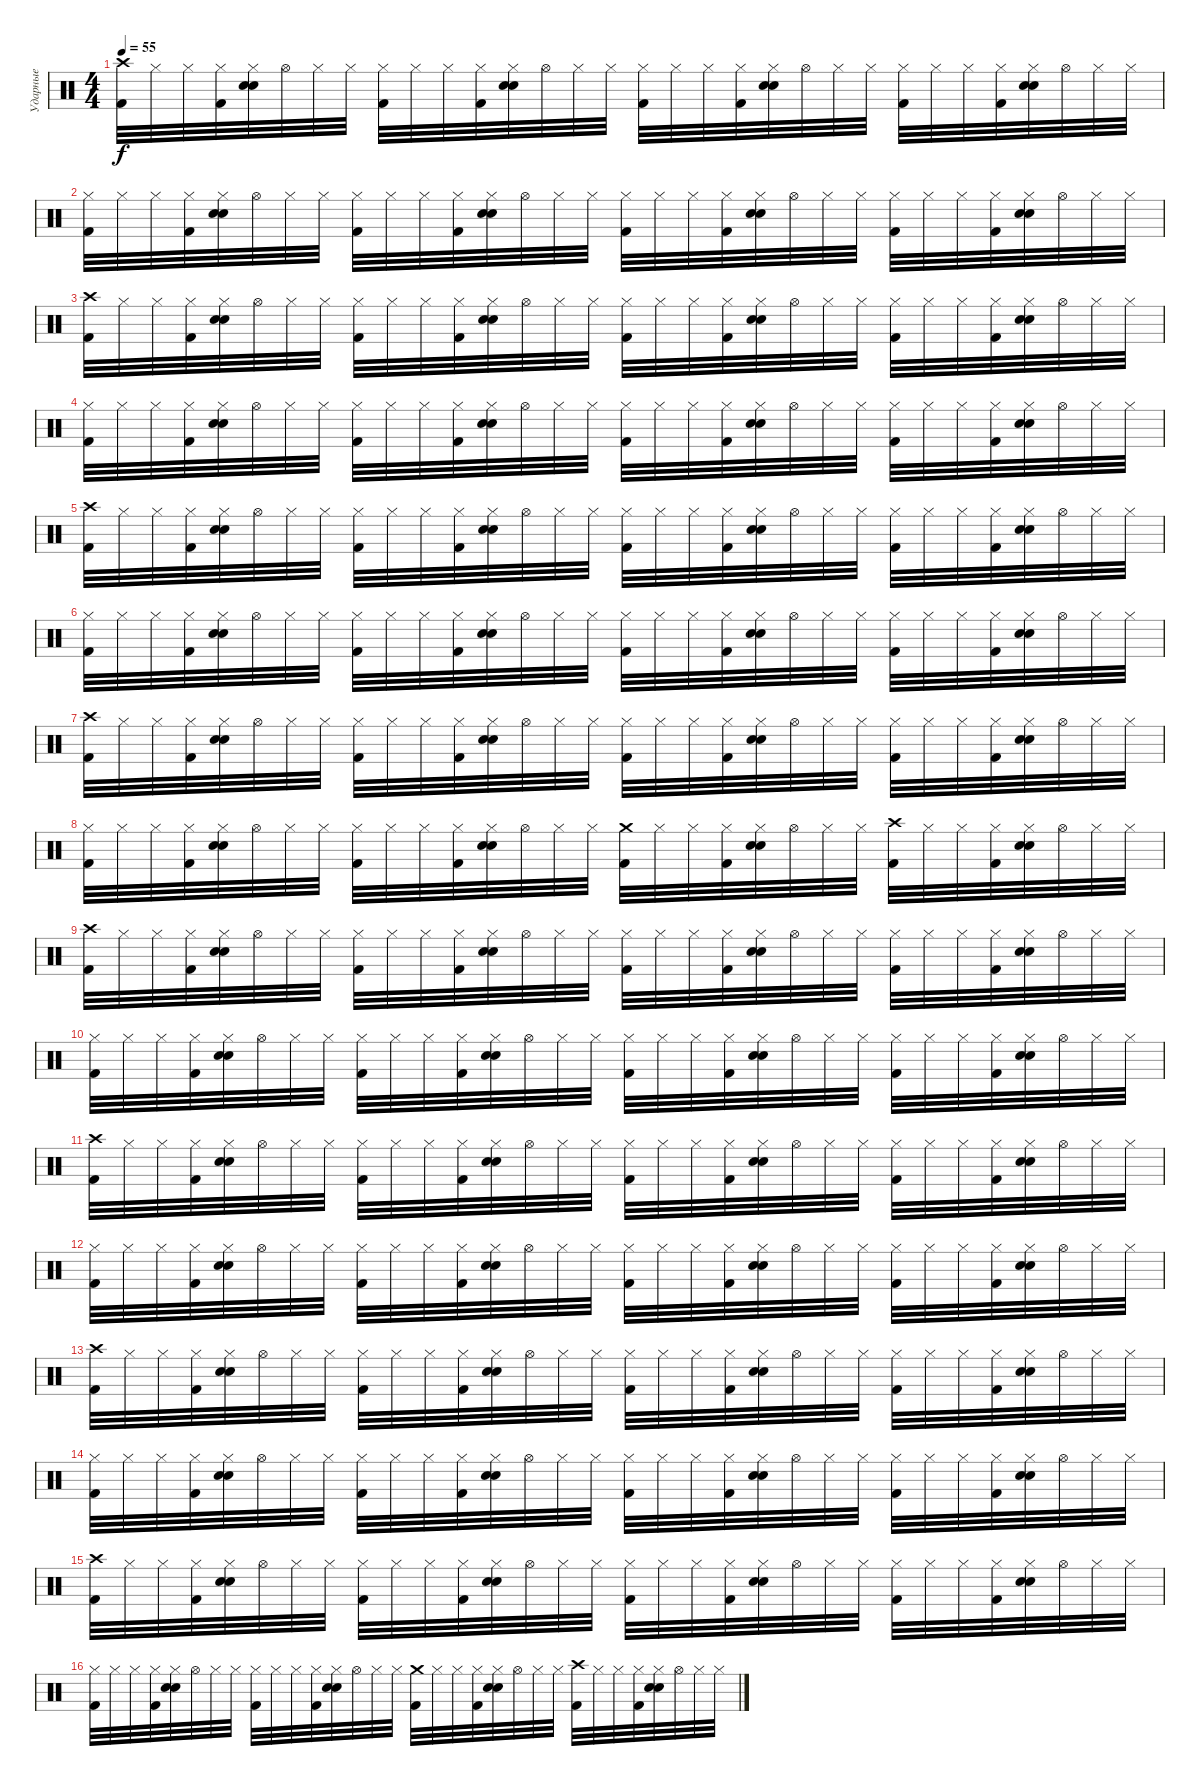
\track ("Ударные" "Ударные") {instrument percussion}
\staff {score}
\articulation defaults
\ts (4 4)
\tempo 55
\clef neutral
\ks c
("Crash high (hit)" "Kick (hit) 2").32{dy f} "Hi-Hat (closed)".32 "Hi-Hat (closed)".32 ("Hi-Hat (closed)" "Kick (hit) 2").32 ("Hi-Hat (closed)" "Snare (hit) 2" "Electric Snare (hit)").32 "Hi-Hat (open)".32 "Hi-Hat (closed)".32 "Hi-Hat (closed)".32 ("Hi-Hat (closed)" "Kick (hit) 2").32 "Hi-Hat (closed)".32 "Hi-Hat (closed)".32 ("Hi-Hat (closed)" "Kick (hit) 2").32 ("Hi-Hat (closed)" "Snare (hit) 2" "Electric Snare (hit)").32 "Hi-Hat (open)".32 "Hi-Hat (closed)".32 "Hi-Hat (closed)".32 ("Hi-Hat (closed)" "Kick (hit) 2").32 "Hi-Hat (closed)".32 "Hi-Hat (closed)".32 ("Hi-Hat (closed)" "Kick (hit) 2").32 ("Hi-Hat (closed)" "Snare (hit) 2" "Electric Snare (hit)").32 "Hi-Hat (open)".32 "Hi-Hat (closed)".32 "Hi-Hat (closed)".32 ("Hi-Hat (closed)" "Kick (hit) 2").32 "Hi-Hat (closed)".32 "Hi-Hat (closed)".32 ("Hi-Hat (closed)" "Kick (hit) 2").32 ("Hi-Hat (closed)" "Snare (hit) 2" "Electric Snare (hit)").32 "Hi-Hat (open)".32 "Hi-Hat (closed)".32 "Hi-Hat (closed)".32 |
("Hi-Hat (closed)" "Kick (hit) 2").32 "Hi-Hat (closed)".32 "Hi-Hat (closed)".32 ("Hi-Hat (closed)" "Kick (hit) 2").32 ("Hi-Hat (closed)" "Snare (hit) 2" "Electric Snare (hit)").32 "Hi-Hat (open)".32 "Hi-Hat (closed)".32 "Hi-Hat (closed)".32 ("Hi-Hat (closed)" "Kick (hit) 2").32 "Hi-Hat (closed)".32 "Hi-Hat (closed)".32 ("Hi-Hat (closed)" "Kick (hit) 2").32 ("Hi-Hat (closed)" "Snare (hit) 2" "Electric Snare (hit)").32 "Hi-Hat (open)".32 "Hi-Hat (closed)".32 "Hi-Hat (closed)".32 ("Hi-Hat (closed)" "Kick (hit) 2").32 "Hi-Hat (closed)".32 "Hi-Hat (closed)".32 ("Hi-Hat (closed)" "Kick (hit) 2").32 ("Hi-Hat (closed)" "Snare (hit) 2" "Electric Snare (hit)").32 "Hi-Hat (open)".32 "Hi-Hat (closed)".32 "Hi-Hat (closed)".32 ("Hi-Hat (closed)" "Kick (hit) 2").32 "Hi-Hat (closed)".32 "Hi-Hat (closed)".32 ("Hi-Hat (closed)" "Kick (hit) 2").32 ("Hi-Hat (closed)" "Snare (hit) 2" "Electric Snare (hit)").32 "Hi-Hat (open)".32 "Hi-Hat (closed)".32 "Hi-Hat (closed)".32 |
("Crash high (hit)" "Kick (hit) 2").32 "Hi-Hat (closed)".32 "Hi-Hat (closed)".32 ("Hi-Hat (closed)" "Kick (hit) 2").32 ("Hi-Hat (closed)" "Snare (hit) 2" "Electric Snare (hit)").32 "Hi-Hat (open)".32 "Hi-Hat (closed)".32 "Hi-Hat (closed)".32 ("Hi-Hat (closed)" "Kick (hit) 2").32 "Hi-Hat (closed)".32 "Hi-Hat (closed)".32 ("Hi-Hat (closed)" "Kick (hit) 2").32 ("Hi-Hat (closed)" "Snare (hit) 2" "Electric Snare (hit)").32 "Hi-Hat (open)".32 "Hi-Hat (closed)".32 "Hi-Hat (closed)".32 ("Hi-Hat (closed)" "Kick (hit) 2").32 "Hi-Hat (closed)".32 "Hi-Hat (closed)".32 ("Hi-Hat (closed)" "Kick (hit) 2").32 ("Hi-Hat (closed)" "Snare (hit) 2" "Electric Snare (hit)").32 "Hi-Hat (open)".32 "Hi-Hat (closed)".32 "Hi-Hat (closed)".32 ("Hi-Hat (closed)" "Kick (hit) 2").32 "Hi-Hat (closed)".32 "Hi-Hat (closed)".32 ("Hi-Hat (closed)" "Kick (hit) 2").32 ("Hi-Hat (closed)" "Snare (hit) 2" "Electric Snare (hit)").32 "Hi-Hat (open)".32 "Hi-Hat (closed)".32 "Hi-Hat (closed)".32 |
("Hi-Hat (closed)" "Kick (hit) 2").32 "Hi-Hat (closed)".32 "Hi-Hat (closed)".32 ("Hi-Hat (closed)" "Kick (hit) 2").32 ("Hi-Hat (closed)" "Snare (hit) 2" "Electric Snare (hit)").32 "Hi-Hat (open)".32 "Hi-Hat (closed)".32 "Hi-Hat (closed)".32 ("Hi-Hat (closed)" "Kick (hit) 2").32 "Hi-Hat (closed)".32 "Hi-Hat (closed)".32 ("Hi-Hat (closed)" "Kick (hit) 2").32 ("Hi-Hat (closed)" "Snare (hit) 2" "Electric Snare (hit)").32 "Hi-Hat (open)".32 "Hi-Hat (closed)".32 "Hi-Hat (closed)".32 ("Hi-Hat (closed)" "Kick (hit) 2").32 "Hi-Hat (closed)".32 "Hi-Hat (closed)".32 ("Hi-Hat (closed)" "Kick (hit) 2").32 ("Hi-Hat (closed)" "Snare (hit) 2" "Electric Snare (hit)").32 "Hi-Hat (open)".32 "Hi-Hat (closed)".32 "Hi-Hat (closed)".32 ("Hi-Hat (closed)" "Kick (hit) 2").32 "Hi-Hat (closed)".32 "Hi-Hat (closed)".32 ("Hi-Hat (closed)" "Kick (hit) 2").32 ("Hi-Hat (closed)" "Snare (hit) 2" "Electric Snare (hit)").32 "Hi-Hat (open)".32 "Hi-Hat (closed)".32 "Hi-Hat (closed)".32 |
("Crash high (hit)" "Kick (hit) 2").32 "Hi-Hat (closed)".32 "Hi-Hat (closed)".32 ("Hi-Hat (closed)" "Kick (hit) 2").32 ("Hi-Hat (closed)" "Snare (hit) 2" "Electric Snare (hit)").32 "Hi-Hat (open)".32 "Hi-Hat (closed)".32 "Hi-Hat (closed)".32 ("Hi-Hat (closed)" "Kick (hit) 2").32 "Hi-Hat (closed)".32 "Hi-Hat (closed)".32 ("Hi-Hat (closed)" "Kick (hit) 2").32 ("Hi-Hat (closed)" "Snare (hit) 2" "Electric Snare (hit)").32 "Hi-Hat (open)".32 "Hi-Hat (closed)".32 "Hi-Hat (closed)".32 ("Hi-Hat (closed)" "Kick (hit) 2").32 "Hi-Hat (closed)".32 "Hi-Hat (closed)".32 ("Hi-Hat (closed)" "Kick (hit) 2").32 ("Hi-Hat (closed)" "Snare (hit) 2" "Electric Snare (hit)").32 "Hi-Hat (open)".32 "Hi-Hat (closed)".32 "Hi-Hat (closed)".32 ("Hi-Hat (closed)" "Kick (hit) 2").32 "Hi-Hat (closed)".32 "Hi-Hat (closed)".32 ("Hi-Hat (closed)" "Kick (hit) 2").32 ("Hi-Hat (closed)" "Snare (hit) 2" "Electric Snare (hit)").32 "Hi-Hat (open)".32 "Hi-Hat (closed)".32 "Hi-Hat (closed)".32 |
("Hi-Hat (closed)" "Kick (hit) 2").32 "Hi-Hat (closed)".32 "Hi-Hat (closed)".32 ("Hi-Hat (closed)" "Kick (hit) 2").32 ("Hi-Hat (closed)" "Snare (hit) 2" "Electric Snare (hit)").32 "Hi-Hat (open)".32 "Hi-Hat (closed)".32 "Hi-Hat (closed)".32 ("Hi-Hat (closed)" "Kick (hit) 2").32 "Hi-Hat (closed)".32 "Hi-Hat (closed)".32 ("Hi-Hat (closed)" "Kick (hit) 2").32 ("Hi-Hat (closed)" "Snare (hit) 2" "Electric Snare (hit)").32 "Hi-Hat (open)".32 "Hi-Hat (closed)".32 "Hi-Hat (closed)".32 ("Hi-Hat (closed)" "Kick (hit) 2").32 "Hi-Hat (closed)".32 "Hi-Hat (closed)".32 ("Hi-Hat (closed)" "Kick (hit) 2").32 ("Hi-Hat (closed)" "Snare (hit) 2" "Electric Snare (hit)").32 "Hi-Hat (open)".32 "Hi-Hat (closed)".32 "Hi-Hat (closed)".32 ("Hi-Hat (closed)" "Kick (hit) 2").32 "Hi-Hat (closed)".32 "Hi-Hat (closed)".32 ("Hi-Hat (closed)" "Kick (hit) 2").32 ("Hi-Hat (closed)" "Snare (hit) 2" "Electric Snare (hit)").32 "Hi-Hat (open)".32 "Hi-Hat (closed)".32 "Hi-Hat (closed)".32 |
("Crash high (hit)" "Kick (hit) 2").32 "Hi-Hat (closed)".32 "Hi-Hat (closed)".32 ("Hi-Hat (closed)" "Kick (hit) 2").32 ("Hi-Hat (closed)" "Snare (hit) 2" "Electric Snare (hit)").32 "Hi-Hat (open)".32 "Hi-Hat (closed)".32 "Hi-Hat (closed)".32 ("Hi-Hat (closed)" "Kick (hit) 2").32 "Hi-Hat (closed)".32 "Hi-Hat (closed)".32 ("Hi-Hat (closed)" "Kick (hit) 2").32 ("Hi-Hat (closed)" "Snare (hit) 2" "Electric Snare (hit)").32 "Hi-Hat (open)".32 "Hi-Hat (closed)".32 "Hi-Hat (closed)".32 ("Hi-Hat (closed)" "Kick (hit) 2").32 "Hi-Hat (closed)".32 "Hi-Hat (closed)".32 ("Hi-Hat (closed)" "Kick (hit) 2").32 ("Hi-Hat (closed)" "Snare (hit) 2" "Electric Snare (hit)").32 "Hi-Hat (open)".32 "Hi-Hat (closed)".32 "Hi-Hat (closed)".32 ("Hi-Hat (closed)" "Kick (hit) 2").32 "Hi-Hat (closed)".32 "Hi-Hat (closed)".32 ("Hi-Hat (closed)" "Kick (hit) 2").32 ("Hi-Hat (closed)" "Snare (hit) 2" "Electric Snare (hit)").32 "Hi-Hat (open)".32 "Hi-Hat (closed)".32 "Hi-Hat (closed)".32 |
("Hi-Hat (closed)" "Kick (hit) 2").32 "Hi-Hat (closed)".32 "Hi-Hat (closed)".32 ("Hi-Hat (closed)" "Kick (hit) 2").32 ("Hi-Hat (closed)" "Snare (hit) 2" "Electric Snare (hit)").32 "Hi-Hat (open)".32 "Hi-Hat (closed)".32 "Hi-Hat (closed)".32 ("Hi-Hat (closed)" "Kick (hit) 2").32 "Hi-Hat (closed)".32 "Hi-Hat (closed)".32 ("Hi-Hat (closed)" "Kick (hit) 2").32 ("Hi-Hat (closed)" "Snare (hit) 2" "Electric Snare (hit)").32 "Hi-Hat (open)".32 "Hi-Hat (closed)".32 "Hi-Hat (closed)".32 ("Crash medium (hit)" "Kick (hit) 2").32 "Hi-Hat (closed)".32 "Hi-Hat (closed)".32 ("Hi-Hat (closed)" "Kick (hit) 2").32 ("Hi-Hat (closed)" "Snare (hit) 2" "Electric Snare (hit)").32 "Hi-Hat (open)".32 "Hi-Hat (closed)".32 "Hi-Hat (closed)".32 ("Crash high (hit)" "Kick (hit) 2").32 "Hi-Hat (closed)".32 "Hi-Hat (closed)".32 ("Hi-Hat (closed)" "Kick (hit) 2").32 ("Hi-Hat (closed)" "Snare (hit) 2" "Electric Snare (hit)").32 "Hi-Hat (open)".32 "Hi-Hat (closed)".32 "Hi-Hat (closed)".32 |
("Crash high (hit)" "Kick (hit) 2").32 "Hi-Hat (closed)".32 "Hi-Hat (closed)".32 ("Hi-Hat (closed)" "Kick (hit) 2").32 ("Hi-Hat (closed)" "Snare (hit) 2" "Electric Snare (hit)").32 "Hi-Hat (open)".32 "Hi-Hat (closed)".32 "Hi-Hat (closed)".32 ("Hi-Hat (closed)" "Kick (hit) 2").32 "Hi-Hat (closed)".32 "Hi-Hat (closed)".32 ("Hi-Hat (closed)" "Kick (hit) 2").32 ("Hi-Hat (closed)" "Snare (hit) 2" "Electric Snare (hit)").32 "Hi-Hat (open)".32 "Hi-Hat (closed)".32 "Hi-Hat (closed)".32 ("Hi-Hat (closed)" "Kick (hit) 2").32 "Hi-Hat (closed)".32 "Hi-Hat (closed)".32 ("Hi-Hat (closed)" "Kick (hit) 2").32 ("Hi-Hat (closed)" "Snare (hit) 2" "Electric Snare (hit)").32 "Hi-Hat (open)".32 "Hi-Hat (closed)".32 "Hi-Hat (closed)".32 ("Hi-Hat (closed)" "Kick (hit) 2").32 "Hi-Hat (closed)".32 "Hi-Hat (closed)".32 ("Hi-Hat (closed)" "Kick (hit) 2").32 ("Hi-Hat (closed)" "Snare (hit) 2" "Electric Snare (hit)").32 "Hi-Hat (open)".32 "Hi-Hat (closed)".32 "Hi-Hat (closed)".32 |
("Hi-Hat (closed)" "Kick (hit) 2").32 "Hi-Hat (closed)".32 "Hi-Hat (closed)".32 ("Hi-Hat (closed)" "Kick (hit) 2").32 ("Hi-Hat (closed)" "Snare (hit) 2" "Electric Snare (hit)").32 "Hi-Hat (open)".32 "Hi-Hat (closed)".32 "Hi-Hat (closed)".32 ("Hi-Hat (closed)" "Kick (hit) 2").32 "Hi-Hat (closed)".32 "Hi-Hat (closed)".32 ("Hi-Hat (closed)" "Kick (hit) 2").32 ("Hi-Hat (closed)" "Snare (hit) 2" "Electric Snare (hit)").32 "Hi-Hat (open)".32 "Hi-Hat (closed)".32 "Hi-Hat (closed)".32 ("Hi-Hat (closed)" "Kick (hit) 2").32 "Hi-Hat (closed)".32 "Hi-Hat (closed)".32 ("Hi-Hat (closed)" "Kick (hit) 2").32 ("Hi-Hat (closed)" "Snare (hit) 2" "Electric Snare (hit)").32 "Hi-Hat (open)".32 "Hi-Hat (closed)".32 "Hi-Hat (closed)".32 ("Hi-Hat (closed)" "Kick (hit) 2").32 "Hi-Hat (closed)".32 "Hi-Hat (closed)".32 ("Hi-Hat (closed)" "Kick (hit) 2").32 ("Hi-Hat (closed)" "Snare (hit) 2" "Electric Snare (hit)").32 "Hi-Hat (open)".32 "Hi-Hat (closed)".32 "Hi-Hat (closed)".32 |
("Crash high (hit)" "Kick (hit) 2").32 "Hi-Hat (closed)".32 "Hi-Hat (closed)".32 ("Hi-Hat (closed)" "Kick (hit) 2").32 ("Hi-Hat (closed)" "Snare (hit) 2" "Electric Snare (hit)").32 "Hi-Hat (open)".32 "Hi-Hat (closed)".32 "Hi-Hat (closed)".32 ("Hi-Hat (closed)" "Kick (hit) 2").32 "Hi-Hat (closed)".32 "Hi-Hat (closed)".32 ("Hi-Hat (closed)" "Kick (hit) 2").32 ("Hi-Hat (closed)" "Snare (hit) 2" "Electric Snare (hit)").32 "Hi-Hat (open)".32 "Hi-Hat (closed)".32 "Hi-Hat (closed)".32 ("Hi-Hat (closed)" "Kick (hit) 2").32 "Hi-Hat (closed)".32 "Hi-Hat (closed)".32 ("Hi-Hat (closed)" "Kick (hit) 2").32 ("Hi-Hat (closed)" "Snare (hit) 2" "Electric Snare (hit)").32 "Hi-Hat (open)".32 "Hi-Hat (closed)".32 "Hi-Hat (closed)".32 ("Hi-Hat (closed)" "Kick (hit) 2").32 "Hi-Hat (closed)".32 "Hi-Hat (closed)".32 ("Hi-Hat (closed)" "Kick (hit) 2").32 ("Hi-Hat (closed)" "Snare (hit) 2" "Electric Snare (hit)").32 "Hi-Hat (open)".32 "Hi-Hat (closed)".32 "Hi-Hat (closed)".32 |
("Hi-Hat (closed)" "Kick (hit) 2").32 "Hi-Hat (closed)".32 "Hi-Hat (closed)".32 ("Hi-Hat (closed)" "Kick (hit) 2").32 ("Hi-Hat (closed)" "Snare (hit) 2" "Electric Snare (hit)").32 "Hi-Hat (open)".32 "Hi-Hat (closed)".32 "Hi-Hat (closed)".32 ("Hi-Hat (closed)" "Kick (hit) 2").32 "Hi-Hat (closed)".32 "Hi-Hat (closed)".32 ("Hi-Hat (closed)" "Kick (hit) 2").32 ("Hi-Hat (closed)" "Snare (hit) 2" "Electric Snare (hit)").32 "Hi-Hat (open)".32 "Hi-Hat (closed)".32 "Hi-Hat (closed)".32 ("Hi-Hat (closed)" "Kick (hit) 2").32 "Hi-Hat (closed)".32 "Hi-Hat (closed)".32 ("Hi-Hat (closed)" "Kick (hit) 2").32 ("Hi-Hat (closed)" "Snare (hit) 2" "Electric Snare (hit)").32 "Hi-Hat (open)".32 "Hi-Hat (closed)".32 "Hi-Hat (closed)".32 ("Hi-Hat (closed)" "Kick (hit) 2").32 "Hi-Hat (closed)".32 "Hi-Hat (closed)".32 ("Hi-Hat (closed)" "Kick (hit) 2").32 ("Hi-Hat (closed)" "Snare (hit) 2" "Electric Snare (hit)").32 "Hi-Hat (open)".32 "Hi-Hat (closed)".32 "Hi-Hat (closed)".32 |
("Crash high (hit)" "Kick (hit) 2").32 "Hi-Hat (closed)".32 "Hi-Hat (closed)".32 ("Hi-Hat (closed)" "Kick (hit) 2").32 ("Hi-Hat (closed)" "Snare (hit) 2" "Electric Snare (hit)").32 "Hi-Hat (open)".32 "Hi-Hat (closed)".32 "Hi-Hat (closed)".32 ("Hi-Hat (closed)" "Kick (hit) 2").32 "Hi-Hat (closed)".32 "Hi-Hat (closed)".32 ("Hi-Hat (closed)" "Kick (hit) 2").32 ("Hi-Hat (closed)" "Snare (hit) 2" "Electric Snare (hit)").32 "Hi-Hat (open)".32 "Hi-Hat (closed)".32 "Hi-Hat (closed)".32 ("Hi-Hat (closed)" "Kick (hit) 2").32 "Hi-Hat (closed)".32 "Hi-Hat (closed)".32 ("Hi-Hat (closed)" "Kick (hit) 2").32 ("Hi-Hat (closed)" "Snare (hit) 2" "Electric Snare (hit)").32 "Hi-Hat (open)".32 "Hi-Hat (closed)".32 "Hi-Hat (closed)".32 ("Hi-Hat (closed)" "Kick (hit) 2").32 "Hi-Hat (closed)".32 "Hi-Hat (closed)".32 ("Hi-Hat (closed)" "Kick (hit) 2").32 ("Hi-Hat (closed)" "Snare (hit) 2" "Electric Snare (hit)").32 "Hi-Hat (open)".32 "Hi-Hat (closed)".32 "Hi-Hat (closed)".32 |
("Hi-Hat (closed)" "Kick (hit) 2").32 "Hi-Hat (closed)".32 "Hi-Hat (closed)".32 ("Hi-Hat (closed)" "Kick (hit) 2").32 ("Hi-Hat (closed)" "Snare (hit) 2" "Electric Snare (hit)").32 "Hi-Hat (open)".32 "Hi-Hat (closed)".32 "Hi-Hat (closed)".32 ("Hi-Hat (closed)" "Kick (hit) 2").32 "Hi-Hat (closed)".32 "Hi-Hat (closed)".32 ("Hi-Hat (closed)" "Kick (hit) 2").32 ("Hi-Hat (closed)" "Snare (hit) 2" "Electric Snare (hit)").32 "Hi-Hat (open)".32 "Hi-Hat (closed)".32 "Hi-Hat (closed)".32 ("Hi-Hat (closed)" "Kick (hit) 2").32 "Hi-Hat (closed)".32 "Hi-Hat (closed)".32 ("Hi-Hat (closed)" "Kick (hit) 2").32 ("Hi-Hat (closed)" "Snare (hit) 2" "Electric Snare (hit)").32 "Hi-Hat (open)".32 "Hi-Hat (closed)".32 "Hi-Hat (closed)".32 ("Hi-Hat (closed)" "Kick (hit) 2").32 "Hi-Hat (closed)".32 "Hi-Hat (closed)".32 ("Hi-Hat (closed)" "Kick (hit) 2").32 ("Hi-Hat (closed)" "Snare (hit) 2" "Electric Snare (hit)").32 "Hi-Hat (open)".32 "Hi-Hat (closed)".32 "Hi-Hat (closed)".32 |
("Crash high (hit)" "Kick (hit) 2").32 "Hi-Hat (closed)".32 "Hi-Hat (closed)".32 ("Hi-Hat (closed)" "Kick (hit) 2").32 ("Hi-Hat (closed)" "Snare (hit) 2" "Electric Snare (hit)").32 "Hi-Hat (open)".32 "Hi-Hat (closed)".32 "Hi-Hat (closed)".32 ("Hi-Hat (closed)" "Kick (hit) 2").32 "Hi-Hat (closed)".32 "Hi-Hat (closed)".32 ("Hi-Hat (closed)" "Kick (hit) 2").32 ("Hi-Hat (closed)" "Snare (hit) 2" "Electric Snare (hit)").32 "Hi-Hat (open)".32 "Hi-Hat (closed)".32 "Hi-Hat (closed)".32 ("Hi-Hat (closed)" "Kick (hit) 2").32 "Hi-Hat (closed)".32 "Hi-Hat (closed)".32 ("Hi-Hat (closed)" "Kick (hit) 2").32 ("Hi-Hat (closed)" "Snare (hit) 2" "Electric Snare (hit)").32 "Hi-Hat (open)".32 "Hi-Hat (closed)".32 "Hi-Hat (closed)".32 ("Hi-Hat (closed)" "Kick (hit) 2").32 "Hi-Hat (closed)".32 "Hi-Hat (closed)".32 ("Hi-Hat (closed)" "Kick (hit) 2").32 ("Hi-Hat (closed)" "Snare (hit) 2" "Electric Snare (hit)").32 "Hi-Hat (open)".32 "Hi-Hat (closed)".32 "Hi-Hat (closed)".32 |
("Hi-Hat (closed)" "Kick (hit) 2").32 "Hi-Hat (closed)".32 "Hi-Hat (closed)".32 ("Hi-Hat (closed)" "Kick (hit) 2").32 ("Hi-Hat (closed)" "Snare (hit) 2" "Electric Snare (hit)").32 "Hi-Hat (open)".32 "Hi-Hat (closed)".32 "Hi-Hat (closed)".32 ("Hi-Hat (closed)" "Kick (hit) 2").32 "Hi-Hat (closed)".32 "Hi-Hat (closed)".32 ("Hi-Hat (closed)" "Kick (hit) 2").32 ("Hi-Hat (closed)" "Snare (hit) 2" "Electric Snare (hit)").32 "Hi-Hat (open)".32 "Hi-Hat (closed)".32 "Hi-Hat (closed)".32 ("Crash medium (hit)" "Kick (hit) 2").32 "Hi-Hat (closed)".32 "Hi-Hat (closed)".32 ("Hi-Hat (closed)" "Kick (hit) 2").32 ("Hi-Hat (closed)" "Snare (hit) 2" "Electric Snare (hit)").32 "Hi-Hat (open)".32 "Hi-Hat (closed)".32 "Hi-Hat (closed)".32 ("Crash high (hit)" "Kick (hit) 2").32 "Hi-Hat (closed)".32 "Hi-Hat (closed)".32 ("Hi-Hat (closed)" "Kick (hit) 2").32 ("Hi-Hat (closed)" "Snare (hit) 2" "Electric Snare (hit)").32 "Hi-Hat (open)".32 "Hi-Hat (closed)".32 "Hi-Hat (closed)".32
